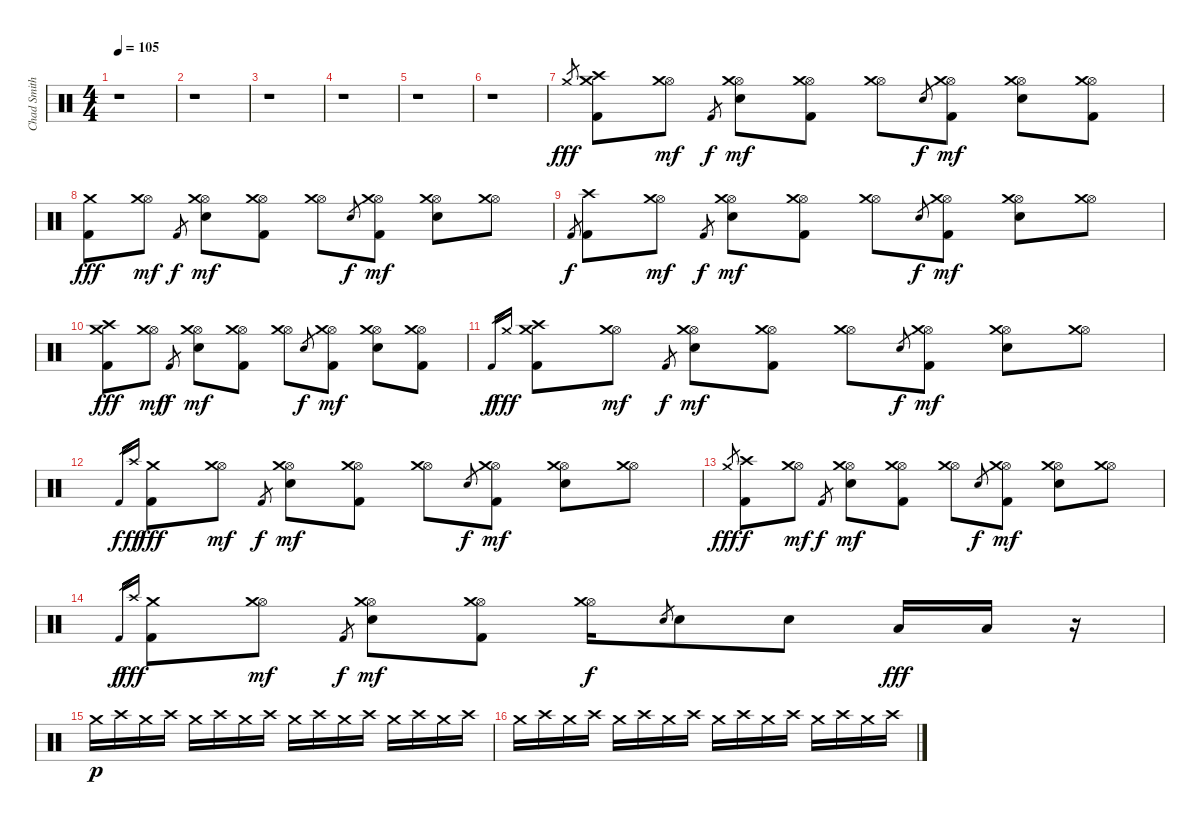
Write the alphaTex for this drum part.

\track ("Chad Smith" "Chad Smith") {instrument percussion}
\staff {score}
\articulation defaults
\ts (4 4)
\tempo 105
\clef neutral
\ks c
r.1{dy fff} |
r.1 |
r.1 |
r.1 |
r.1 |
r.1 |
"Crash medium (hit)".8{gr} ("Kick (hit) 2" "Crash medium (hit)" "Crash high (hit)").8 ("Hi-Hat (open)" "Crash medium (hit)").8{dy mf} "Kick (hit) 2".8{gr dy f} ("Hi-Hat (open)" "Electric Snare (hit)" "Crash medium (hit)").8{dy mf} ("Hi-Hat (open)" "Kick (hit) 2" "Crash medium (hit)").8 ("Hi-Hat (open)" "Crash medium (hit)").8 "Electric Snare (hit)".8{gr dy f} ("Hi-Hat (open)" "Kick (hit) 2" "Crash medium (hit)").8{dy mf} ("Hi-Hat (open)" "Electric Snare (hit)" "Crash medium (hit)").8 ("Hi-Hat (open)" "Kick (hit) 2" "Crash medium (hit)").8 |
("Kick (hit) 2" "Crash medium (hit)").8{dy fff} ("Hi-Hat (open)" "Crash medium (hit)").8{dy mf} "Kick (hit) 2".8{gr dy f} ("Hi-Hat (open)" "Electric Snare (hit)" "Crash medium (hit)").8{dy mf} ("Hi-Hat (open)" "Kick (hit) 2" "Crash medium (hit)").8 ("Hi-Hat (open)" "Crash medium (hit)").8 "Electric Snare (hit)".8{gr dy f} ("Hi-Hat (open)" "Kick (hit) 2" "Crash medium (hit)").8{dy mf} ("Hi-Hat (open)" "Electric Snare (hit)" "Crash medium (hit)").8 ("Hi-Hat (open)" "Crash medium (hit)").8 |
"Kick (hit) 2".8{gr dy f} ("Kick (hit) 2" "Crash high (hit)").8 ("Hi-Hat (open)" "Crash medium (hit)").8{dy mf} "Kick (hit) 2".8{gr dy f} ("Hi-Hat (open)" "Electric Snare (hit)" "Crash medium (hit)").8{dy mf} ("Hi-Hat (open)" "Kick (hit) 2" "Crash medium (hit)").8 ("Hi-Hat (open)" "Crash medium (hit)").8 "Electric Snare (hit)".8{gr dy f} ("Hi-Hat (open)" "Kick (hit) 2" "Crash medium (hit)").8{dy mf} ("Hi-Hat (open)" "Electric Snare (hit)" "Crash medium (hit)").8 ("Hi-Hat (open)" "Crash medium (hit)").8 |
("Kick (hit) 2" "Crash medium (hit)" "Crash high (hit)").8{dy fff} ("Hi-Hat (open)" "Crash medium (hit)").8{dy mf} "Kick (hit) 2".8{gr dy f} ("Hi-Hat (open)" "Electric Snare (hit)" "Crash medium (hit)").8{dy mf} ("Hi-Hat (open)" "Kick (hit) 2" "Crash medium (hit)").8 ("Hi-Hat (open)" "Crash medium (hit)").8 "Electric Snare (hit)".8{gr dy f} ("Hi-Hat (open)" "Kick (hit) 2" "Crash medium (hit)").8{dy mf} ("Hi-Hat (open)" "Electric Snare (hit)" "Crash medium (hit)").8 ("Hi-Hat (open)" "Kick (hit) 2" "Crash medium (hit)").8 |
"Kick (hit) 2".16{gr dy f} "Crash medium (hit)".16{gr dy fff} ("Kick (hit) 2" "Crash medium (hit)" "Crash high (hit)").8 ("Hi-Hat (open)" "Crash medium (hit)").8{dy mf} "Kick (hit) 2".8{gr dy f} ("Hi-Hat (open)" "Electric Snare (hit)" "Crash medium (hit)").8{dy mf} ("Hi-Hat (open)" "Kick (hit) 2" "Crash medium (hit)").8 ("Hi-Hat (open)" "Crash medium (hit)").8 "Electric Snare (hit)".8{gr dy f} ("Hi-Hat (open)" "Kick (hit) 2" "Crash medium (hit)").8{dy mf} ("Hi-Hat (open)" "Electric Snare (hit)" "Crash medium (hit)").8 ("Hi-Hat (open)" "Crash medium (hit)").8 |
"Kick (hit) 2".16{gr dy f} "Crash high (hit)".16{gr dy ff} ("Kick (hit) 2" "Crash medium (hit)").8{dy fff} ("Hi-Hat (open)" "Crash medium (hit)").8{dy mf} "Kick (hit) 2".8{gr dy f} ("Hi-Hat (open)" "Electric Snare (hit)" "Crash medium (hit)").8{dy mf} ("Hi-Hat (open)" "Kick (hit) 2" "Crash medium (hit)").8 ("Hi-Hat (open)" "Crash medium (hit)").8 "Electric Snare (hit)".8{gr dy f} ("Hi-Hat (open)" "Kick (hit) 2" "Crash medium (hit)").8{dy mf} ("Hi-Hat (open)" "Electric Snare (hit)" "Crash medium (hit)").8 ("Hi-Hat (open)" "Crash medium (hit)").8 |
"Crash medium (hit)".8{gr dy fff} ("Kick (hit) 2" "Crash high (hit)").8{dy f} ("Hi-Hat (open)" "Crash medium (hit)").8{dy mf} "Kick (hit) 2".8{gr dy f} ("Hi-Hat (open)" "Electric Snare (hit)" "Crash medium (hit)").8{dy mf} ("Hi-Hat (open)" "Kick (hit) 2" "Crash medium (hit)").8 ("Hi-Hat (open)" "Crash medium (hit)").8 "Electric Snare (hit)".8{gr dy f} ("Hi-Hat (open)" "Kick (hit) 2" "Crash medium (hit)").8{dy mf} ("Hi-Hat (open)" "Electric Snare (hit)" "Crash medium (hit)").8 ("Hi-Hat (open)" "Crash medium (hit)").8 |
"Kick (hit) 2".16{gr dy f} "Crash high (hit)".16{gr dy fff} ("Kick (hit) 2" "Crash medium (hit)").8 ("Hi-Hat (open)" "Crash medium (hit)").8{dy mf} "Kick (hit) 2".8{gr dy f} ("Hi-Hat (open)" "Electric Snare (hit)" "Crash medium (hit)").8{dy mf} ("Hi-Hat (open)" "Kick (hit) 2" "Crash medium (hit)").8 ("Hi-Hat (open)" "Crash medium (hit)").16{dy f} "Electric Snare (hit)".8{gr} "Electric Snare (hit)".8 "Electric Snare (hit)".8 "Low Tom (hit)".16{dy fff} "Low Tom (hit)".16 r.16 |
"Crash medium (hit)".16{dy p} "Crash high (hit)".16 "Crash medium (hit)".16 "Crash high (hit)".16 "Crash medium (hit)".16 "Crash high (hit)".16 "Crash medium (hit)".16 "Crash high (hit)".16 "Crash medium (hit)".16 "Crash high (hit)".16 "Crash medium (hit)".16 "Crash high (hit)".16 "Crash medium (hit)".16 "Crash high (hit)".16 "Crash medium (hit)".16 "Crash high (hit)".16 |
"Crash medium (hit)".16 "Crash high (hit)".16 "Crash medium (hit)".16 "Crash high (hit)".16 "Crash medium (hit)".16 "Crash high (hit)".16 "Crash medium (hit)".16 "Crash high (hit)".16 "Crash medium (hit)".16 "Crash high (hit)".16 "Crash medium (hit)".16 "Crash high (hit)".16 "Crash medium (hit)".16 "Crash high (hit)".16 "Crash medium (hit)".16 "Crash high (hit)".16
